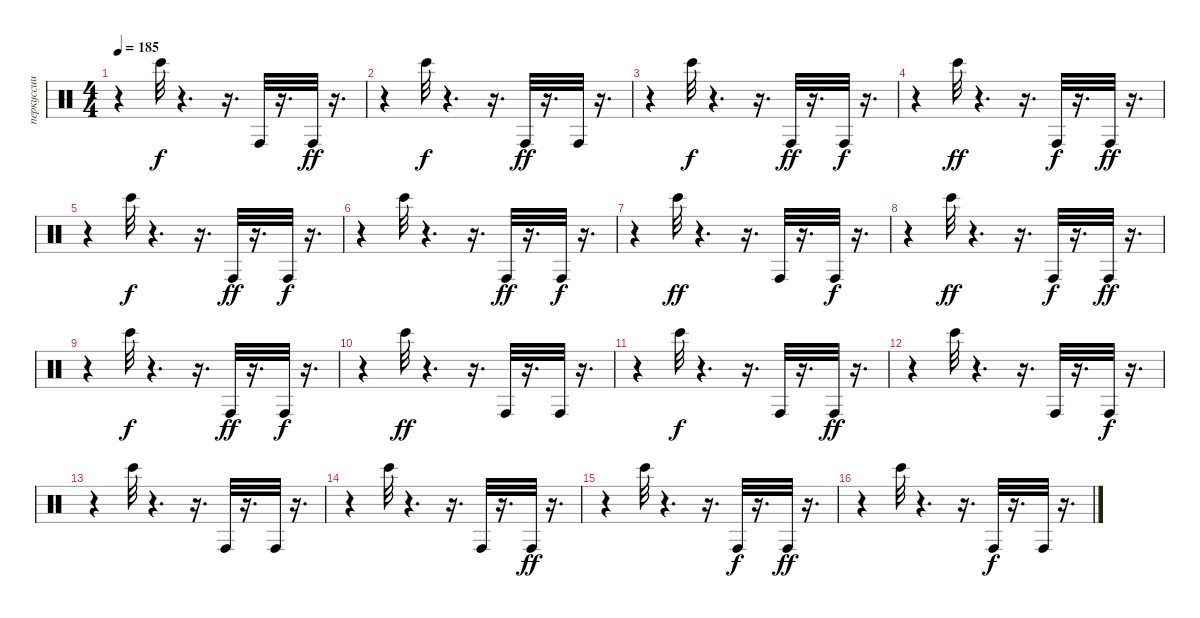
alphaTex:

\track ("перкуссии" "перкуссии") {instrument percussion}
\staff {score}
\articulation defaults
\ts (4 4)
\tempo 185
\clef neutral
\ks c
r.4{dy ff} "Bongo High (hit)".32{dy f} r.4{d} r.16{d} "Conga high (hit)".32 r.16{d} "Conga high (hit)".32{dy ff} r.16{d} |
r.4 "Bongo High (hit)".32{dy f} r.4{d} r.16{d} "Conga high (hit)".32{dy ff} r.16{d} "Conga high (hit)".32 r.16{d} |
r.4 "Bongo High (hit)".32{dy f} r.4{d} r.16{d} "Conga high (hit)".32{dy ff} r.16{d} "Conga high (hit)".32{dy f} r.16{d} |
r.4 "Bongo High (hit)".32{dy ff} r.4{d} r.16{d} "Conga high (hit)".32{dy f} r.16{d} "Conga high (hit)".32{dy ff} r.16{d} |
r.4 "Bongo High (hit)".32{dy f} r.4{d} r.16{d} "Conga high (hit)".32{dy ff} r.16{d} "Conga high (hit)".32{dy f} r.16{d} |
r.4 "Bongo High (hit)".32 r.4{d} r.16{d} "Conga high (hit)".32{dy ff} r.16{d} "Conga high (hit)".32{dy f} r.16{d} |
r.4 "Bongo High (hit)".32{dy ff} r.4{d} r.16{d} "Conga high (hit)".32 r.16{d} "Conga high (hit)".32{dy f} r.16{d} |
r.4 "Bongo High (hit)".32{dy ff} r.4{d} r.16{d} "Conga high (hit)".32{dy f} r.16{d} "Conga high (hit)".32{dy ff} r.16{d} |
r.4 "Bongo High (hit)".32{dy f} r.4{d} r.16{d} "Conga high (hit)".32{dy ff} r.16{d} "Conga high (hit)".32{dy f} r.16{d} |
r.4 "Bongo High (hit)".32{dy ff} r.4{d} r.16{d} "Conga high (hit)".32 r.16{d} "Conga high (hit)".32 r.16{d} |
r.4 "Bongo High (hit)".32{dy f} r.4{d} r.16{d} "Conga high (hit)".32 r.16{d} "Conga high (hit)".32{dy ff} r.16{d} |
r.4 "Bongo High (hit)".32 r.4{d} r.16{d} "Conga high (hit)".32 r.16{d} "Conga high (hit)".32{dy f} r.16{d} |
r.4 "Bongo High (hit)".32 r.4{d} r.16{d} "Conga high (hit)".32 r.16{d} "Conga high (hit)".32 r.16{d} |
r.4 "Bongo High (hit)".32 r.4{d} r.16{d} "Conga high (hit)".32 r.16{d} "Conga high (hit)".32{dy ff} r.16{d} |
r.4 "Bongo High (hit)".32 r.4{d} r.16{d} "Conga high (hit)".32{dy f} r.16{d} "Conga high (hit)".32{dy ff} r.16{d} |
r.4 "Bongo High (hit)".32 r.4{d} r.16{d} "Conga high (hit)".32{dy f} r.16{d} "Conga high (hit)".32 r.16{d}
